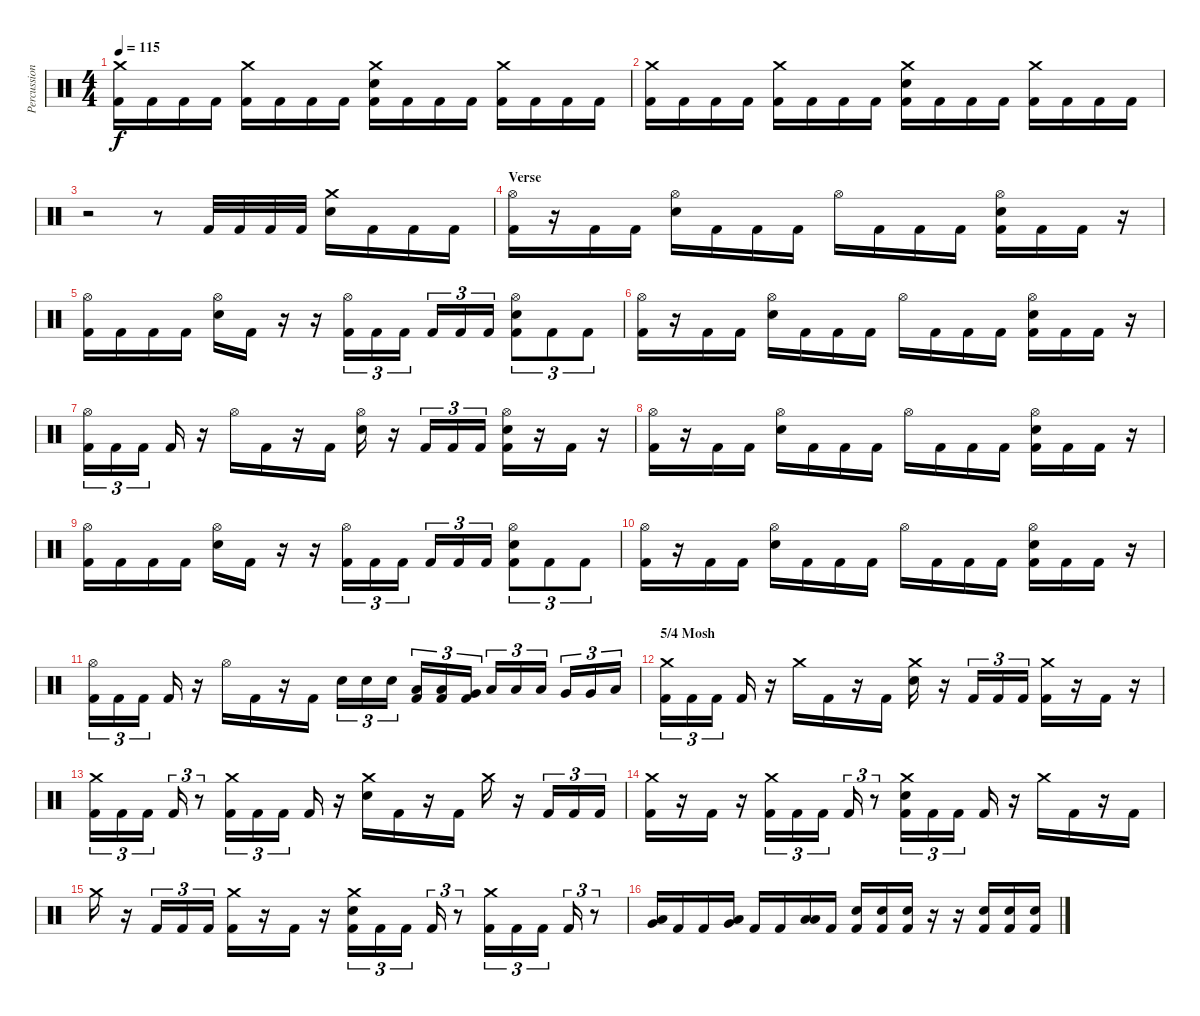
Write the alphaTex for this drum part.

\track ("Percussion" "Percussion") {instrument percussion}
\staff {score}
\articulation defaults
\ts (4 4)
\tempo 115
\clef neutral
\ks c
("Crash medium (hit)" "Kick (hit) 2").16{dy f} "Kick (hit) 2".16 "Kick (hit) 2".16 "Kick (hit) 2".16 ("Crash medium (hit)" "Kick (hit) 2").16 "Kick (hit) 2".16 "Kick (hit) 2".16 "Kick (hit) 2".16 ("Crash medium (hit)" "Electric Snare (hit)" "Kick (hit) 2").16 "Kick (hit) 2".16 "Kick (hit) 2".16 "Kick (hit) 2".16 ("Crash medium (hit)" "Kick (hit) 2").16 "Kick (hit) 2".16 "Kick (hit) 2".16 "Kick (hit) 2".16 |
("Crash medium (hit)" "Kick (hit) 2").16 "Kick (hit) 2".16 "Kick (hit) 2".16 "Kick (hit) 2".16 ("Crash medium (hit)" "Kick (hit) 2").16 "Kick (hit) 2".16 "Kick (hit) 2".16 "Kick (hit) 2".16 ("Crash medium (hit)" "Electric Snare (hit)" "Kick (hit) 2").16 "Kick (hit) 2".16 "Kick (hit) 2".16 "Kick (hit) 2".16 ("Crash medium (hit)" "Kick (hit) 2").16 "Kick (hit) 2".16 "Kick (hit) 2".16 "Kick (hit) 2".16 |
r.2 r.8 "Kick (hit) 2".32 "Kick (hit) 2".32 "Kick (hit) 2".32 "Kick (hit) 2".32 ("Crash medium (hit)" "Electric Snare (hit)").16 "Kick (hit) 2".16 "Kick (hit) 2".16 "Kick (hit) 2".16 |
\section ("" "Verse")
("Hi-Hat (open)" "Kick (hit) 2").16 r.16 "Kick (hit) 2".16 "Kick (hit) 2".16 ("Hi-Hat (open)" "Electric Snare (hit)").16 "Kick (hit) 2".16 "Kick (hit) 2".16 "Kick (hit) 2".16 "Hi-Hat (open)".16 "Kick (hit) 2".16 "Kick (hit) 2".16 "Kick (hit) 2".16 ("Hi-Hat (open)" "Electric Snare (hit)" "Kick (hit) 2").16 "Kick (hit) 2".16 "Kick (hit) 2".16 r.16 |
("Hi-Hat (open)" "Kick (hit) 2").16 "Kick (hit) 2".16 "Kick (hit) 2".16 "Kick (hit) 2".16 ("Hi-Hat (open)" "Electric Snare (hit)").16 "Kick (hit) 2".16 r.16 r.16 ("Hi-Hat (open)" "Kick (hit) 2").16{tu (3 2)} "Kick (hit) 2".16{tu (3 2)} "Kick (hit) 2".16{tu (3 2)} "Kick (hit) 2".16{tu (3 2)} "Kick (hit) 2".16{tu (3 2)} "Kick (hit) 2".16{tu (3 2)} ("Hi-Hat (open)" "Electric Snare (hit)" "Kick (hit) 2").8{tu (3 2)} "Kick (hit) 2".8{tu (3 2)} "Kick (hit) 2".8{tu (3 2)} |
("Hi-Hat (open)" "Kick (hit) 2").16 r.16 "Kick (hit) 2".16 "Kick (hit) 2".16 ("Hi-Hat (open)" "Electric Snare (hit)").16 "Kick (hit) 2".16 "Kick (hit) 2".16 "Kick (hit) 2".16 "Hi-Hat (open)".16 "Kick (hit) 2".16 "Kick (hit) 2".16 "Kick (hit) 2".16 ("Hi-Hat (open)" "Electric Snare (hit)" "Kick (hit) 2").16 "Kick (hit) 2".16 "Kick (hit) 2".16 r.16 |
("Hi-Hat (open)" "Kick (hit) 2").16{tu (3 2)} "Kick (hit) 2".16{tu (3 2)} "Kick (hit) 2".16{tu (3 2)} "Kick (hit) 2".16 r.16 "Hi-Hat (open)".16 "Kick (hit) 2".16 r.16 "Kick (hit) 2".16 ("Hi-Hat (open)" "Electric Snare (hit)").16 r.16 "Kick (hit) 2".16{tu (3 2)} "Kick (hit) 2".16{tu (3 2)} "Kick (hit) 2".16{tu (3 2)} ("Hi-Hat (open)" "Electric Snare (hit)" "Kick (hit) 2").16 r.16 "Kick (hit) 2".16 r.16 |
("Hi-Hat (open)" "Kick (hit) 2").16 r.16 "Kick (hit) 2".16 "Kick (hit) 2".16 ("Hi-Hat (open)" "Electric Snare (hit)").16 "Kick (hit) 2".16 "Kick (hit) 2".16 "Kick (hit) 2".16 "Hi-Hat (open)".16 "Kick (hit) 2".16 "Kick (hit) 2".16 "Kick (hit) 2".16 ("Hi-Hat (open)" "Electric Snare (hit)" "Kick (hit) 2").16 "Kick (hit) 2".16 "Kick (hit) 2".16 r.16 |
("Hi-Hat (open)" "Kick (hit) 2").16 "Kick (hit) 2".16 "Kick (hit) 2".16 "Kick (hit) 2".16 ("Hi-Hat (open)" "Electric Snare (hit)").16 "Kick (hit) 2".16 r.16 r.16 ("Hi-Hat (open)" "Kick (hit) 2").16{tu (3 2)} "Kick (hit) 2".16{tu (3 2)} "Kick (hit) 2".16{tu (3 2)} "Kick (hit) 2".16{tu (3 2)} "Kick (hit) 2".16{tu (3 2)} "Kick (hit) 2".16{tu (3 2)} ("Hi-Hat (open)" "Electric Snare (hit)" "Kick (hit) 2").8{tu (3 2)} "Kick (hit) 2".8{tu (3 2)} "Kick (hit) 2".8{tu (3 2)} |
("Hi-Hat (open)" "Kick (hit) 2").16 r.16 "Kick (hit) 2".16 "Kick (hit) 2".16 ("Hi-Hat (open)" "Electric Snare (hit)").16 "Kick (hit) 2".16 "Kick (hit) 2".16 "Kick (hit) 2".16 "Hi-Hat (open)".16 "Kick (hit) 2".16 "Kick (hit) 2".16 "Kick (hit) 2".16 ("Hi-Hat (open)" "Electric Snare (hit)" "Kick (hit) 2").16 "Kick (hit) 2".16 "Kick (hit) 2".16 r.16 |
("Hi-Hat (open)" "Kick (hit) 2").16{tu (3 2)} "Kick (hit) 2".16{tu (3 2)} "Kick (hit) 2".16{tu (3 2)} "Kick (hit) 2".16 r.16 "Hi-Hat (open)".16 "Kick (hit) 2".16 r.16 "Kick (hit) 2".16 "Electric Snare (hit)".16{tu (3 2)} "Electric Snare (hit)".16{tu (3 2)} "Electric Snare (hit)".16{tu (3 2)} ("Low Tom (hit)" "Kick (hit) 2").16{tu (3 2)} ("Low Tom (hit)" "Kick (hit) 2").16{tu (3 2)} ("Very Low Tom (hit)" "Kick (hit) 2").16{tu (3 2)} "Low Tom (hit)".16{tu (3 2)} "Low Tom (hit)".16{tu (3 2)} "Low Tom (hit)".16{tu (3 2)} "Very Low Tom (hit)".16{tu (3 2)} "Very Low Tom (hit)".16{tu (3 2)} "Low Floor Tom (hit)".16{tu (3 2)} |
\section ("" "5/4 Mosh")
("Crash medium (hit)" "Kick (hit) 2").16{tu (3 2)} "Kick (hit) 2".16{tu (3 2)} "Kick (hit) 2".16{tu (3 2)} "Kick (hit) 2".16 r.16 "Crash medium (hit)".16 "Kick (hit) 2".16 r.16 "Kick (hit) 2".16 ("Crash medium (hit)" "Electric Snare (hit)").16 r.16 "Kick (hit) 2".16{tu (3 2)} "Kick (hit) 2".16{tu (3 2)} "Kick (hit) 2".16{tu (3 2)} ("Crash medium (hit)" "Kick (hit) 2").16 r.16 "Kick (hit) 2".16 r.16 |
("Crash medium (hit)" "Kick (hit) 2").16{tu (3 2)} "Kick (hit) 2".16{tu (3 2)} "Kick (hit) 2".16{tu (3 2)} "Kick (hit) 2".16{tu (3 2)} r.8{tu (3 2)} ("Crash medium (hit)" "Kick (hit) 2").16{tu (3 2)} "Kick (hit) 2".16{tu (3 2)} "Kick (hit) 2".16{tu (3 2)} "Kick (hit) 2".16 r.16 ("Crash medium (hit)" "Electric Snare (hit)").16 "Kick (hit) 2".16 r.16 "Kick (hit) 2".16 "Crash medium (hit)".16 r.16 "Kick (hit) 2".16{tu (3 2)} "Kick (hit) 2".16{tu (3 2)} "Kick (hit) 2".16{tu (3 2)} |
("Crash medium (hit)" "Kick (hit) 2").16 r.16 "Kick (hit) 2".16 r.16 ("Crash medium (hit)" "Kick (hit) 2").16{tu (3 2)} "Kick (hit) 2".16{tu (3 2)} "Kick (hit) 2".16{tu (3 2)} "Kick (hit) 2".16{tu (3 2)} r.8{tu (3 2)} ("Crash medium (hit)" "Electric Snare (hit)" "Kick (hit) 2").16{tu (3 2)} "Kick (hit) 2".16{tu (3 2)} "Kick (hit) 2".16{tu (3 2)} "Kick (hit) 2".16 r.16 "Crash medium (hit)".16 "Kick (hit) 2".16 r.16 "Kick (hit) 2".16 |
"Crash medium (hit)".16 r.16 "Kick (hit) 2".16{tu (3 2)} "Kick (hit) 2".16{tu (3 2)} "Kick (hit) 2".16{tu (3 2)} ("Crash medium (hit)" "Kick (hit) 2").16 r.16 "Kick (hit) 2".16 r.16 ("Crash medium (hit)" "Electric Snare (hit)" "Kick (hit) 2").16{tu (3 2)} "Kick (hit) 2".16{tu (3 2)} "Kick (hit) 2".16{tu (3 2)} "Kick (hit) 2".16{tu (3 2)} r.8{tu (3 2)} ("Crash medium (hit)" "Kick (hit) 2").16{tu (3 2)} "Kick (hit) 2".16{tu (3 2)} "Kick (hit) 2".16{tu (3 2)} "Kick (hit) 2".16{tu (3 2)} r.8{tu (3 2)} |
("Low Tom (hit)" "Very Low Tom (hit)").16 "Kick (hit) 2".16 "Kick (hit) 2".16 ("Very Low Tom (hit)" "Low Floor Tom (hit)").16 "Kick (hit) 2".16 "Kick (hit) 2".16 ("Low Floor Tom (hit)" "Low Floor Tom (hit)").16 "Kick (hit) 2".16 ("Electric Snare (hit)" "Kick (hit) 2").16 ("Electric Snare (hit)" "Kick (hit) 2").16 ("Electric Snare (hit)" "Kick (hit) 2").16 r.16 r.16 ("Electric Snare (hit)" "Kick (hit) 2").16 ("Electric Snare (hit)" "Kick (hit) 2").16 ("Electric Snare (hit)" "Kick (hit) 2").16
